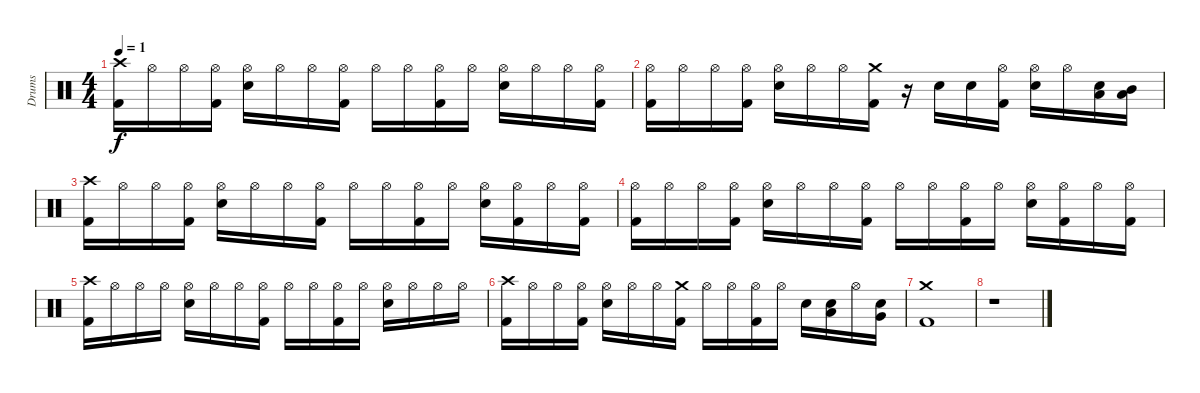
\track ("Drums" "Drums") {instrument percussion}
\staff {score}
\articulation defaults
\ts (4 4)
\tempo 1
\clef neutral
\ks c
("Crash high (hit)" "Kick (hit) 2").16{dy f} "Hi-Hat (open)".16 "Hi-Hat (open)".16 ("Hi-Hat (open)" "Kick (hit) 2").16 ("Hi-Hat (open)" "Snare (hit) 2").16 "Hi-Hat (open)".16 "Hi-Hat (open)".16 ("Kick (hit) 2" "Hi-Hat (open)").16 "Hi-Hat (open)".16 "Hi-Hat (open)".16 ("Hi-Hat (open)" "Kick (hit) 2").16 "Hi-Hat (open)".16 ("Hi-Hat (open)" "Snare (hit) 2").16 "Hi-Hat (open)".16 "Hi-Hat (open)".16 ("Hi-Hat (open)" "Kick (hit) 2").16 |
("Hi-Hat (open)" "Kick (hit) 2").16 "Hi-Hat (open)".16 "Hi-Hat (open)".16 ("Hi-Hat (open)" "Kick (hit) 2").16 ("Hi-Hat (open)" "Snare (hit) 2").16 "Hi-Hat (open)".16 "Hi-Hat (open)".16 ("Kick (hit) 2" "Crash medium (hit)").16 r.16 "Snare (hit) 2".16 "Snare (hit) 2".16 ("Hi-Hat (open)" "Kick (hit) 2").16 ("Snare (hit) 2" "Hi-Hat (open)").16 "Hi-Hat (open)".16 ("Snare (hit) 2" "Low Tom (hit)").16 ("Low Floor Tom (hit)" "Mid Tom (hit)").16 |
("Crash high (hit)" "Kick (hit) 2").16 "Hi-Hat (open)".16 "Hi-Hat (open)".16 ("Hi-Hat (open)" "Kick (hit) 2").16 ("Hi-Hat (open)" "Snare (hit) 2").16 "Hi-Hat (open)".16 "Hi-Hat (open)".16 ("Kick (hit) 2" "Hi-Hat (open)").16 "Hi-Hat (open)".16 "Hi-Hat (open)".16 ("Hi-Hat (open)" "Kick (hit) 2").16 "Hi-Hat (open)".16 ("Hi-Hat (open)" "Snare (hit) 2").16 ("Hi-Hat (open)" "Kick (hit) 2").16 "Hi-Hat (open)".16 ("Hi-Hat (open)" "Kick (hit) 2").16 |
("Hi-Hat (open)" "Kick (hit) 2").16 "Hi-Hat (open)".16 "Hi-Hat (open)".16 ("Hi-Hat (open)" "Kick (hit) 2").16 ("Hi-Hat (open)" "Snare (hit) 2").16 "Hi-Hat (open)".16 "Hi-Hat (open)".16 ("Kick (hit) 2" "Hi-Hat (open)").16 "Hi-Hat (open)".16 "Hi-Hat (open)".16 ("Hi-Hat (open)" "Kick (hit) 2").16 "Hi-Hat (open)".16 ("Hi-Hat (open)" "Snare (hit) 2").16 ("Hi-Hat (open)" "Kick (hit) 2").16 "Hi-Hat (open)".16 ("Kick (hit) 2" "Hi-Hat (open)").16 |
("Crash high (hit)" "Kick (hit) 2").16 "Hi-Hat (open)".16 "Hi-Hat (open)".16 "Hi-Hat (open)".16 ("Hi-Hat (open)" "Snare (hit) 2").16 "Hi-Hat (open)".16 "Hi-Hat (open)".16 ("Kick (hit) 2" "Hi-Hat (open)").16 "Hi-Hat (open)".16 "Hi-Hat (open)".16 ("Hi-Hat (open)" "Kick (hit) 2").16 "Hi-Hat (open)".16 ("Hi-Hat (open)" "Snare (hit) 2").16 "Hi-Hat (open)".16 "Hi-Hat (open)".16 "Hi-Hat (open)".16 |
("Kick (hit) 2" "Crash high (hit)").16 "Hi-Hat (open)".16 "Hi-Hat (open)".16 ("Hi-Hat (open)" "Kick (hit) 2").16 ("Hi-Hat (open)" "Snare (hit) 2").16 "Hi-Hat (open)".16 "Hi-Hat (open)".16 ("Kick (hit) 2" "Crash medium (hit)").16 "Hi-Hat (open)".16 "Hi-Hat (open)".16 ("Hi-Hat (open)" "Kick (hit) 2").16 "Hi-Hat (open)".16 "Snare (hit) 2".16 ("Snare (hit) 2" "Low Tom (hit)").16 "Hi-Hat (open)".16 ("Snare (hit) 2" "Very Low Tom (hit)").16 |
("Kick (hit) 2" "Crash medium (hit)").1 |
r.1
